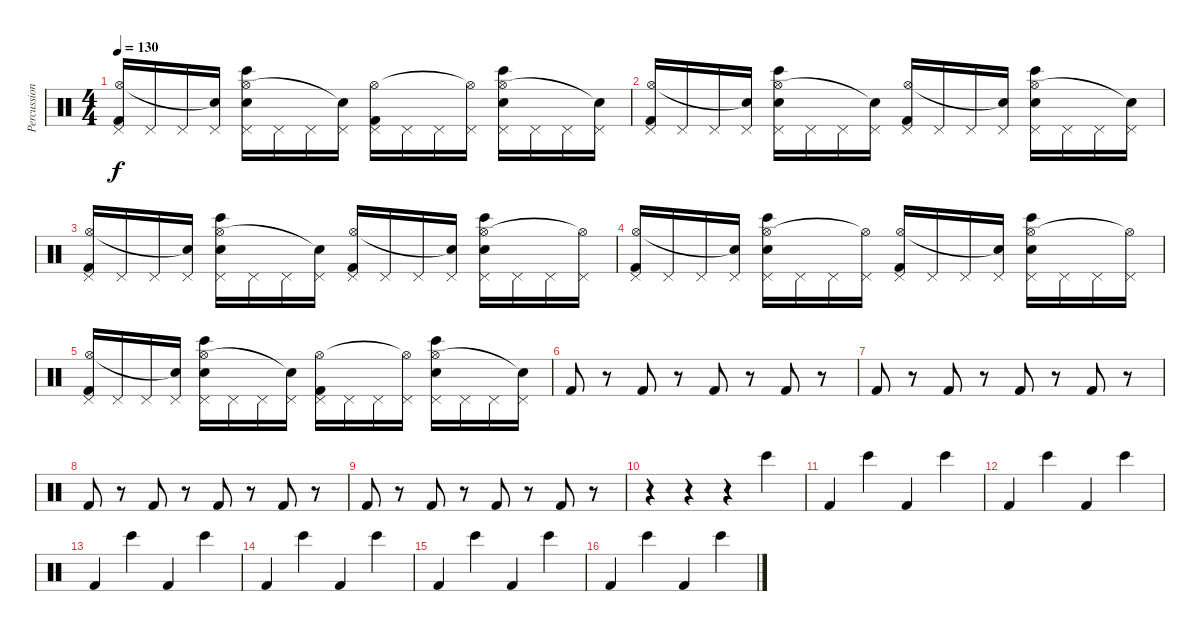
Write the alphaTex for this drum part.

\track ("Percussion" "Percussion") {instrument percussion}
\staff {score}
\articulation defaults
\ts (4 4)
\tempo 130
\clef neutral
\ks c
("Pedal Hi-Hat (hit)" "Hi-Hat (open)" "Kick (hit) 2").16{dy f} "Pedal Hi-Hat (hit)".16 "Pedal Hi-Hat (hit)".16 ("Pedal Hi-Hat (hit)" "Snare (hit)"{t}).16 ("Pedal Hi-Hat (hit)" "Hi-Hat (open)" "Electric Snare (hit)" "Bongo High (hit)").16 "Pedal Hi-Hat (hit)".16 "Pedal Hi-Hat (hit)".16 ("Pedal Hi-Hat (hit)" "Snare (hit)"{t}).16 ("Pedal Hi-Hat (hit)" "Hi-Hat (open)" "Kick (hit) 2").16 "Pedal Hi-Hat (hit)".16 "Pedal Hi-Hat (hit)".16 ("Pedal Hi-Hat (hit)" "Hi-Hat (open)"{t}).16 ("Pedal Hi-Hat (hit)" "Hi-Hat (open)" "Electric Snare (hit)" "Bongo High (hit)").16 "Pedal Hi-Hat (hit)".16 "Pedal Hi-Hat (hit)".16 ("Pedal Hi-Hat (hit)" "Snare (hit)"{t}).16 |
("Pedal Hi-Hat (hit)" "Hi-Hat (open)" "Kick (hit) 2").16 "Pedal Hi-Hat (hit)".16 "Pedal Hi-Hat (hit)".16 ("Pedal Hi-Hat (hit)" "Snare (hit)"{t}).16 ("Pedal Hi-Hat (hit)" "Hi-Hat (open)" "Electric Snare (hit)" "Bongo High (hit)").16 "Pedal Hi-Hat (hit)".16 "Pedal Hi-Hat (hit)".16 ("Pedal Hi-Hat (hit)" "Snare (hit)"{t}).16 ("Pedal Hi-Hat (hit)" "Hi-Hat (open)" "Kick (hit) 2").16 "Pedal Hi-Hat (hit)".16 "Pedal Hi-Hat (hit)".16 ("Pedal Hi-Hat (hit)" "Snare (hit)"{t}).16 ("Pedal Hi-Hat (hit)" "Hi-Hat (open)" "Electric Snare (hit)" "Bongo High (hit)").16 "Pedal Hi-Hat (hit)".16 "Pedal Hi-Hat (hit)".16 ("Pedal Hi-Hat (hit)" "Snare (hit)"{t}).16 |
("Pedal Hi-Hat (hit)" "Hi-Hat (open)" "Kick (hit) 2").16 "Pedal Hi-Hat (hit)".16 "Pedal Hi-Hat (hit)".16 ("Pedal Hi-Hat (hit)" "Snare (hit)"{t}).16 ("Pedal Hi-Hat (hit)" "Hi-Hat (open)" "Electric Snare (hit)" "Bongo High (hit)").16 "Pedal Hi-Hat (hit)".16 "Pedal Hi-Hat (hit)".16 ("Pedal Hi-Hat (hit)" "Snare (hit)"{t}).16 ("Pedal Hi-Hat (hit)" "Hi-Hat (open)" "Kick (hit) 2").16 "Pedal Hi-Hat (hit)".16 "Pedal Hi-Hat (hit)".16 ("Pedal Hi-Hat (hit)" "Snare (hit)"{t}).16 ("Pedal Hi-Hat (hit)" "Hi-Hat (open)" "Electric Snare (hit)" "Bongo High (hit)").16 "Pedal Hi-Hat (hit)".16 "Pedal Hi-Hat (hit)".16 ("Pedal Hi-Hat (hit)" "Hi-Hat (open)"{t}).16 |
("Pedal Hi-Hat (hit)" "Hi-Hat (open)" "Kick (hit) 2").16 "Pedal Hi-Hat (hit)".16 "Pedal Hi-Hat (hit)".16 ("Pedal Hi-Hat (hit)" "Snare (hit)"{t}).16 ("Pedal Hi-Hat (hit)" "Hi-Hat (open)" "Electric Snare (hit)" "Bongo High (hit)").16 "Pedal Hi-Hat (hit)".16 "Pedal Hi-Hat (hit)".16 ("Pedal Hi-Hat (hit)" "Hi-Hat (open)"{t}).16 ("Pedal Hi-Hat (hit)" "Hi-Hat (open)" "Kick (hit) 2").16 "Pedal Hi-Hat (hit)".16 "Pedal Hi-Hat (hit)".16 ("Pedal Hi-Hat (hit)" "Snare (hit)"{t}).16 ("Pedal Hi-Hat (hit)" "Hi-Hat (open)" "Electric Snare (hit)" "Bongo High (hit)").16 "Pedal Hi-Hat (hit)".16 "Pedal Hi-Hat (hit)".16 ("Pedal Hi-Hat (hit)" "Hi-Hat (open)"{t}).16 |
("Pedal Hi-Hat (hit)" "Hi-Hat (open)" "Kick (hit) 2").16 "Pedal Hi-Hat (hit)".16 "Pedal Hi-Hat (hit)".16 ("Pedal Hi-Hat (hit)" "Snare (hit)"{t}).16 ("Pedal Hi-Hat (hit)" "Hi-Hat (open)" "Electric Snare (hit)" "Bongo High (hit)").16 "Pedal Hi-Hat (hit)".16 "Pedal Hi-Hat (hit)".16 ("Pedal Hi-Hat (hit)" "Snare (hit)"{t}).16 ("Pedal Hi-Hat (hit)" "Hi-Hat (open)" "Kick (hit) 2").16 "Pedal Hi-Hat (hit)".16 "Pedal Hi-Hat (hit)".16 ("Pedal Hi-Hat (hit)" "Hi-Hat (open)"{t}).16 ("Pedal Hi-Hat (hit)" "Hi-Hat (open)" "Electric Snare (hit)" "Bongo High (hit)").16 "Pedal Hi-Hat (hit)".16 "Pedal Hi-Hat (hit)".16 ("Pedal Hi-Hat (hit)" "Snare (hit)"{t}).16 |
"Kick (hit) 2".8 r.8 "Kick (hit) 2".8 r.8 "Kick (hit) 2".8 r.8 "Kick (hit) 2".8 r.8 |
"Kick (hit) 2".8 r.8 "Kick (hit) 2".8 r.8 "Kick (hit) 2".8 r.8 "Kick (hit) 2".8 r.8 |
"Kick (hit) 2".8 r.8 "Kick (hit) 2".8 r.8 "Kick (hit) 2".8 r.8 "Kick (hit) 2".8 r.8 |
"Kick (hit) 2".8 r.8 "Kick (hit) 2".8 r.8 "Kick (hit) 2".8 r.8 "Kick (hit) 2".8 r.8 |
r.4 r.4 r.4 "Bongo High (hit)".4 |
"Kick (hit) 2".4 "Bongo High (hit)".4 "Kick (hit) 2".4 "Bongo High (hit)".4 |
"Kick (hit) 2".4 "Bongo High (hit)".4 "Kick (hit) 2".4 "Bongo High (hit)".4 |
"Kick (hit) 2".4 "Bongo High (hit)".4 "Kick (hit) 2".4 "Bongo High (hit)".4 |
"Kick (hit) 2".4 "Bongo High (hit)".4 "Kick (hit) 2".4 "Bongo High (hit)".4 |
"Kick (hit) 2".4 "Bongo High (hit)".4 "Kick (hit) 2".4 "Bongo High (hit)".4 |
"Kick (hit) 2".4 "Bongo High (hit)".4 "Kick (hit) 2".4 "Bongo High (hit)".4
